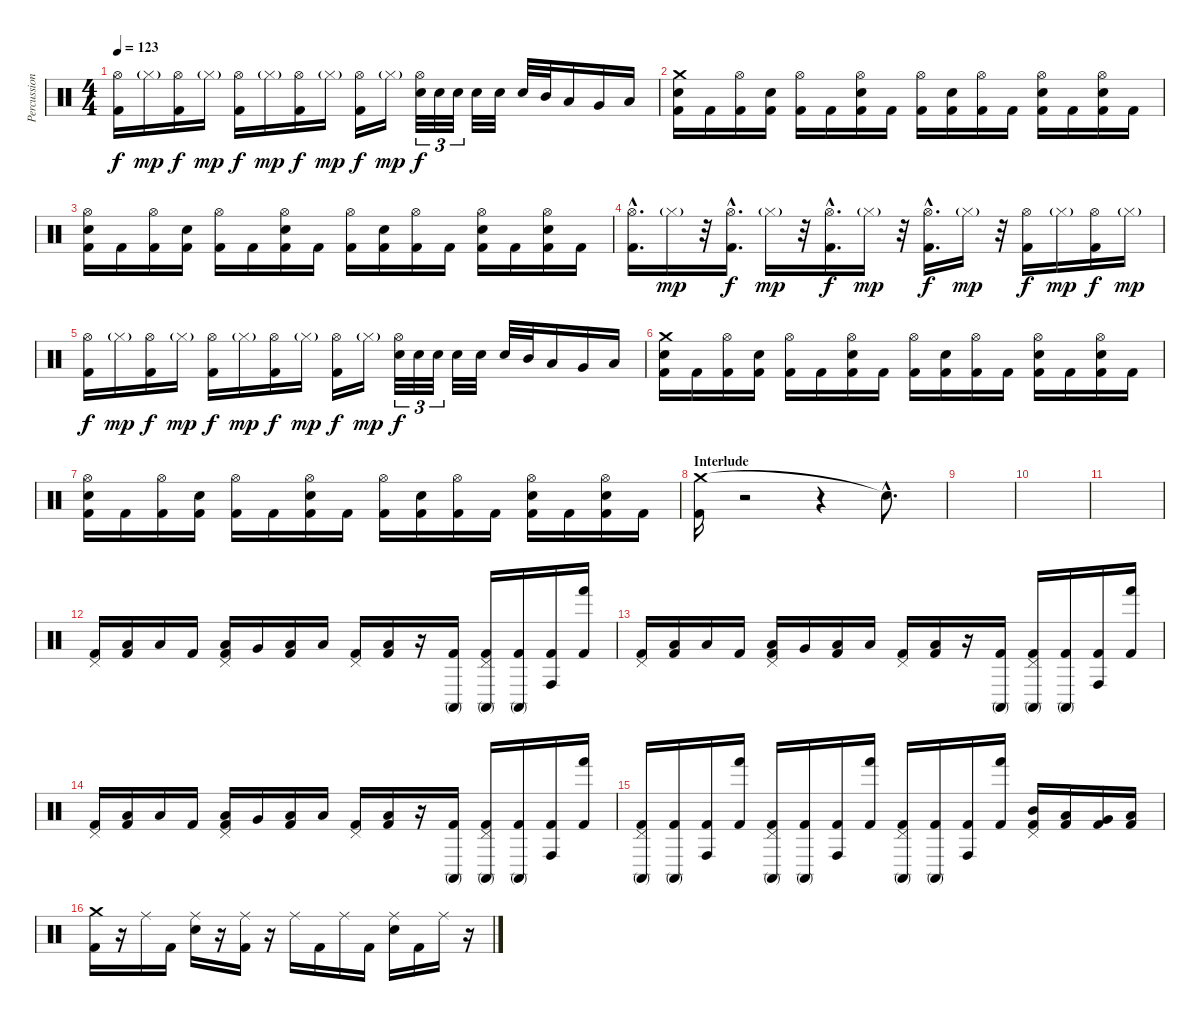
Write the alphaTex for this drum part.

\track ("Percussion" "Percussion") {instrument percussion}
\staff {score}
\articulation defaults
\ts (4 4)
\tempo 123
\clef neutral
\ks c
("Hi-Hat (open)" "Kick (hit) 2").16{dy f} "Hi-Hat (closed)"{g}.16{dy mp} ("Hi-Hat (open)" "Kick (hit) 2").16{dy f} "Hi-Hat (closed)"{g}.16{dy mp} ("Hi-Hat (open)" "Kick (hit) 2").16{dy f} "Hi-Hat (closed)"{g}.16{dy mp} ("Hi-Hat (open)" "Kick (hit) 2").16{dy f} "Hi-Hat (closed)"{g}.16{dy mp} ("Hi-Hat (open)" "Kick (hit) 2").16{dy f} "Hi-Hat (closed)"{g}.16{dy mp} ("Hi-Hat (open)" "Electric Snare (hit)").32{tu (3 2) dy f} "Electric Snare (hit)".32{tu (3 2)} "Electric Snare (hit)".32{tu (3 2)} "Electric Snare (hit)".32 "Electric Snare (hit)".32 "Electric Snare (hit)".32 "Mid Tom (hit)".32 "Low Tom (hit)".16 "Very Low Tom (hit)".16 "Low Floor Tom (hit)".16 |
("Crash medium (hit)" "Electric Snare (hit)" "Kick (hit) 2").16 "Kick (hit) 2".16 ("Hi-Hat (open)" "Kick (hit) 2").16 ("Electric Snare (hit)" "Kick (hit) 2").16 ("Hi-Hat (open)" "Kick (hit) 2").16 "Kick (hit) 2".16 ("Hi-Hat (open)" "Electric Snare (hit)" "Kick (hit) 2").16 "Kick (hit) 2".16 ("Hi-Hat (open)" "Kick (hit) 2").16 ("Electric Snare (hit)" "Kick (hit) 2").16 ("Hi-Hat (open)" "Kick (hit) 2").16 "Kick (hit) 2".16 ("Hi-Hat (open)" "Electric Snare (hit)" "Kick (hit) 2").16 "Kick (hit) 2".16 ("Hi-Hat (open)" "Electric Snare (hit)" "Kick (hit) 2").16 "Kick (hit) 2".16 |
("Hi-Hat (open)" "Electric Snare (hit)" "Kick (hit) 2").16 "Kick (hit) 2".16 ("Hi-Hat (open)" "Kick (hit) 2").16 ("Electric Snare (hit)" "Kick (hit) 2").16 ("Hi-Hat (open)" "Kick (hit) 2").16 "Kick (hit) 2".16 ("Hi-Hat (open)" "Electric Snare (hit)" "Kick (hit) 2").16 "Kick (hit) 2".16 ("Hi-Hat (open)" "Kick (hit) 2").16 ("Electric Snare (hit)" "Kick (hit) 2").16 ("Hi-Hat (open)" "Kick (hit) 2").16 "Kick (hit) 2".16 ("Hi-Hat (open)" "Electric Snare (hit)" "Kick (hit) 2").16 "Kick (hit) 2".16 ("Hi-Hat (open)" "Electric Snare (hit)" "Kick (hit) 2").16 "Kick (hit) 2".16 |
("Hi-Hat (open)"{hac} "Kick (hit) 2"{hac}).16{d} "Hi-Hat (closed)"{g}.16{dy mp} r.32 ("Hi-Hat (open)"{hac} "Kick (hit) 2"{hac}).16{d dy f} "Hi-Hat (closed)"{g}.16{dy mp} r.32 ("Hi-Hat (open)"{hac} "Kick (hit) 2"{hac}).16{d dy f} "Hi-Hat (closed)"{g}.16{dy mp} r.32 ("Hi-Hat (open)"{hac} "Kick (hit) 2"{hac}).16{d dy f} "Hi-Hat (closed)"{g}.16{dy mp} r.32 ("Hi-Hat (open)" "Kick (hit) 2").16{dy f} "Hi-Hat (closed)"{g}.16{dy mp} ("Hi-Hat (open)" "Kick (hit) 2").16{dy f} "Hi-Hat (closed)"{g}.16{dy mp} |
("Hi-Hat (open)" "Kick (hit) 2").16{dy f} "Hi-Hat (closed)"{g}.16{dy mp} ("Hi-Hat (open)" "Kick (hit) 2").16{dy f} "Hi-Hat (closed)"{g}.16{dy mp} ("Hi-Hat (open)" "Kick (hit) 2").16{dy f} "Hi-Hat (closed)"{g}.16{dy mp} ("Hi-Hat (open)" "Kick (hit) 2").16{dy f} "Hi-Hat (closed)"{g}.16{dy mp} ("Hi-Hat (open)" "Kick (hit) 2").16{dy f} "Hi-Hat (closed)"{g}.16{dy mp} ("Hi-Hat (open)" "Electric Snare (hit)").32{tu (3 2) dy f} "Electric Snare (hit)".32{tu (3 2)} "Electric Snare (hit)".32{tu (3 2)} "Electric Snare (hit)".32 "Electric Snare (hit)".32 "Electric Snare (hit)".32 "Mid Tom (hit)".32 "Low Tom (hit)".16 "Very Low Tom (hit)".16 "Low Floor Tom (hit)".16 |
("Crash medium (hit)" "Electric Snare (hit)" "Kick (hit) 2").16 "Kick (hit) 2".16 ("Hi-Hat (open)" "Kick (hit) 2").16 ("Electric Snare (hit)" "Kick (hit) 2").16 ("Hi-Hat (open)" "Kick (hit) 2").16 "Kick (hit) 2".16 ("Hi-Hat (open)" "Electric Snare (hit)" "Kick (hit) 2").16 "Kick (hit) 2".16 ("Hi-Hat (open)" "Kick (hit) 2").16 ("Electric Snare (hit)" "Kick (hit) 2").16 ("Hi-Hat (open)" "Kick (hit) 2").16 "Kick (hit) 2".16 ("Hi-Hat (open)" "Electric Snare (hit)" "Kick (hit) 2").16 "Kick (hit) 2".16 ("Hi-Hat (open)" "Electric Snare (hit)" "Kick (hit) 2").16 "Kick (hit) 2".16 |
("Hi-Hat (open)" "Electric Snare (hit)" "Kick (hit) 2").16 "Kick (hit) 2".16 ("Hi-Hat (open)" "Kick (hit) 2").16 ("Electric Snare (hit)" "Kick (hit) 2").16 ("Hi-Hat (open)" "Kick (hit) 2").16 "Kick (hit) 2".16 ("Hi-Hat (open)" "Electric Snare (hit)" "Kick (hit) 2").16 "Kick (hit) 2".16 ("Hi-Hat (open)" "Kick (hit) 2").16 ("Electric Snare (hit)" "Kick (hit) 2").16 ("Hi-Hat (open)" "Kick (hit) 2").16 "Kick (hit) 2".16 ("Hi-Hat (open)" "Electric Snare (hit)" "Kick (hit) 2").16 "Kick (hit) 2".16 ("Hi-Hat (open)" "Electric Snare (hit)" "Kick (hit) 2").16 "Kick (hit) 2".16 |
\section ("" "Interlude")
("Crash medium (hit)" "Kick (hit) 2").16 r.2 r.4 "Snare (hit)"{hac t}.8{d} |
|
|
|
("Pedal Hi-Hat (hit)" "Kick (hit) 2").16 ("Low Floor Tom (hit)" "Kick (hit) 2").16 "Low Floor Tom (hit)".16 "Kick (hit) 2".16 ("Pedal Hi-Hat (hit)" "Low Floor Tom (hit)" "Kick (hit) 2").16 "Very Low Tom (hit)".16 ("Low Tom (hit)" "Kick (hit) 2").16 "Low Floor Tom (hit)".16 ("Pedal Hi-Hat (hit)" "Kick (hit) 2").16 ("Low Floor Tom (hit)" "Kick (hit) 2").16 r.16 ("Conga high (mute)" "Kick (hit) 2").16 ("Pedal Hi-Hat (hit)" "Conga high (mute)" "Kick (hit) 2").16 ("Conga high (mute)" "Kick (hit) 2").16 ("Conga high (hit)" "Kick (hit) 2").16 ("Hand (hit)" "Kick (hit) 2").16 |
("Pedal Hi-Hat (hit)" "Kick (hit) 2").16 ("Low Floor Tom (hit)" "Kick (hit) 2").16 "Low Floor Tom (hit)".16 "Kick (hit) 2".16 ("Pedal Hi-Hat (hit)" "Low Floor Tom (hit)" "Kick (hit) 2").16 "Very Low Tom (hit)".16 ("Low Tom (hit)" "Kick (hit) 2").16 "Low Floor Tom (hit)".16 ("Pedal Hi-Hat (hit)" "Kick (hit) 2").16 ("Low Floor Tom (hit)" "Kick (hit) 2").16 r.16 ("Conga high (mute)" "Kick (hit) 2").16 ("Pedal Hi-Hat (hit)" "Conga high (mute)" "Kick (hit) 2").16 ("Conga high (mute)" "Kick (hit) 2").16 ("Conga high (hit)" "Kick (hit) 2").16 ("Hand (hit)" "Kick (hit) 2").16 |
("Pedal Hi-Hat (hit)" "Kick (hit) 2").16 ("Low Floor Tom (hit)" "Kick (hit) 2").16 "Low Floor Tom (hit)".16 "Kick (hit) 2".16 ("Pedal Hi-Hat (hit)" "Low Floor Tom (hit)" "Kick (hit) 2").16 "Very Low Tom (hit)".16 ("Low Tom (hit)" "Kick (hit) 2").16 "Low Floor Tom (hit)".16 ("Pedal Hi-Hat (hit)" "Kick (hit) 2").16 ("Low Floor Tom (hit)" "Kick (hit) 2").16 r.16 ("Conga high (mute)" "Kick (hit) 2").16 ("Pedal Hi-Hat (hit)" "Conga high (mute)" "Kick (hit) 2").16 ("Conga high (mute)" "Kick (hit) 2").16 ("Conga high (hit)" "Kick (hit) 2").16 ("Hand (hit)" "Kick (hit) 2").16 |
("Pedal Hi-Hat (hit)" "Conga high (mute)" "Kick (hit) 2").16 ("Conga high (mute)" "Kick (hit) 2").16 ("Conga high (hit)" "Kick (hit) 2").16 ("Hand (hit)" "Kick (hit) 2").16 ("Pedal Hi-Hat (hit)" "Conga high (mute)" "Kick (hit) 2").16 ("Conga high (mute)" "Kick (hit) 2").16 ("Conga high (hit)" "Kick (hit) 2").16 ("Hand (hit)" "Kick (hit) 2").16 ("Pedal Hi-Hat (hit)" "Conga high (mute)" "Kick (hit) 2").16 ("Conga high (mute)" "Kick (hit) 2").16 ("Conga high (hit)" "Kick (hit) 2").16 ("Hand (hit)" "Kick (hit) 2").16 ("Pedal Hi-Hat (hit)" "Mid Tom (hit)" "Kick (hit) 2").16 ("Low Tom (hit)" "Kick (hit) 2").16 ("Very Low Tom (hit)" "Kick (hit) 2").16 ("Low Floor Tom (hit)" "Kick (hit) 2").16 |
("Crash medium (hit)" "Kick (hit) 2").16 r.16 "Ride (middle)".16 "Kick (hit) 2".16 ("Ride (middle)" "Electric Snare (hit)").16 r.16 ("Ride (middle)" "Kick (hit) 2").16 r.16 "Ride (middle)".16 "Kick (hit) 2".16 "Ride (middle)".16 "Kick (hit) 2".16 ("Ride (middle)" "Electric Snare (hit)").16 "Kick (hit) 2".16 "Ride (middle)".16 r.16
